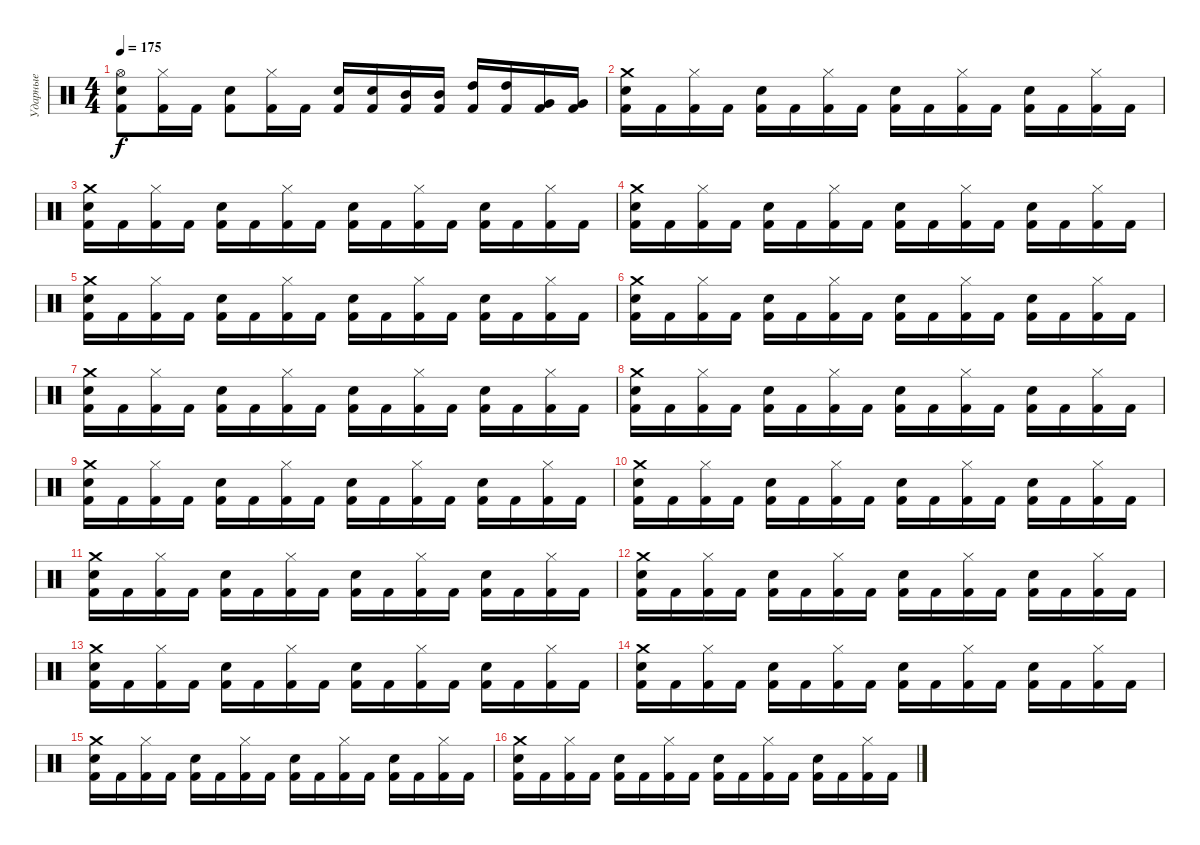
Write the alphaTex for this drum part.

\track ("Ударные" "Ударные") {instrument percussion}
\staff {score}
\articulation defaults
\ts (4 4)
\tempo 175
\clef neutral
\ks c
("Kick (hit) 2" "Snare (hit) 2" "Hi-Hat (open)").8{dy f} ("Kick (hit) 2" "Hi-Hat (closed)").16 "Kick (hit) 2".16 ("Kick (hit) 2" "Snare (hit) 2").8 ("Kick (hit) 2" "Hi-Hat (closed)").16 "Kick (hit) 2".16 ("Electric Snare (hit)" "Kick (hit) 2").16 ("Electric Snare (hit)" "Kick (hit) 2").16 ("Mid Tom (hit)" "Kick (hit) 2").16 ("Mid Tom (hit)" "Kick (hit) 2").16 ("High Tom (hit)" "Kick (hit) 2").16 ("High Tom (hit)" "Kick (hit) 2").16 ("Very Low Tom (hit)" "Kick (hit) 2").16 ("Very Low Tom (hit)" "Kick (hit) 2").16 |
("Kick (hit) 2" "Snare (hit) 2" "Crash medium (hit)").16 "Kick (hit) 2".16 ("Kick (hit) 2" "Hi-Hat (closed)").16 "Kick (hit) 2".16 ("Kick (hit) 2" "Snare (hit) 2").16 "Kick (hit) 2".16 ("Kick (hit) 2" "Hi-Hat (closed)").16 "Kick (hit) 2".16 ("Kick (hit) 2" "Snare (hit) 2").16 "Kick (hit) 2".16 ("Kick (hit) 2" "Hi-Hat (closed)").16 "Kick (hit) 2".16 ("Kick (hit) 2" "Snare (hit) 2").16 "Kick (hit) 2".16 ("Kick (hit) 2" "Hi-Hat (closed)").16 "Kick (hit) 2".16 |
("Kick (hit) 2" "Snare (hit) 2" "Crash medium (hit)").16 "Kick (hit) 2".16 ("Kick (hit) 2" "Hi-Hat (closed)").16 "Kick (hit) 2".16 ("Kick (hit) 2" "Snare (hit) 2").16 "Kick (hit) 2".16 ("Kick (hit) 2" "Hi-Hat (closed)").16 "Kick (hit) 2".16 ("Kick (hit) 2" "Snare (hit) 2").16 "Kick (hit) 2".16 ("Kick (hit) 2" "Hi-Hat (closed)").16 "Kick (hit) 2".16 ("Kick (hit) 2" "Snare (hit) 2").16 "Kick (hit) 2".16 ("Kick (hit) 2" "Hi-Hat (closed)").16 "Kick (hit) 2".16 |
("Kick (hit) 2" "Snare (hit) 2" "Crash medium (hit)").16 "Kick (hit) 2".16 ("Kick (hit) 2" "Hi-Hat (closed)").16 "Kick (hit) 2".16 ("Kick (hit) 2" "Snare (hit) 2").16 "Kick (hit) 2".16 ("Kick (hit) 2" "Hi-Hat (closed)").16 "Kick (hit) 2".16 ("Kick (hit) 2" "Snare (hit) 2").16 "Kick (hit) 2".16 ("Kick (hit) 2" "Hi-Hat (closed)").16 "Kick (hit) 2".16 ("Kick (hit) 2" "Snare (hit) 2").16 "Kick (hit) 2".16 ("Kick (hit) 2" "Hi-Hat (closed)").16 "Kick (hit) 2".16 |
("Kick (hit) 2" "Snare (hit) 2" "Crash medium (hit)").16 "Kick (hit) 2".16 ("Kick (hit) 2" "Hi-Hat (closed)").16 "Kick (hit) 2".16 ("Kick (hit) 2" "Snare (hit) 2").16 "Kick (hit) 2".16 ("Kick (hit) 2" "Hi-Hat (closed)").16 "Kick (hit) 2".16 ("Kick (hit) 2" "Snare (hit) 2").16 "Kick (hit) 2".16 ("Kick (hit) 2" "Hi-Hat (closed)").16 "Kick (hit) 2".16 ("Kick (hit) 2" "Snare (hit) 2").16 "Kick (hit) 2".16 ("Kick (hit) 2" "Hi-Hat (closed)").16 "Kick (hit) 2".16 |
("Kick (hit) 2" "Snare (hit) 2" "Crash medium (hit)").16 "Kick (hit) 2".16 ("Kick (hit) 2" "Hi-Hat (closed)").16 "Kick (hit) 2".16 ("Kick (hit) 2" "Snare (hit) 2").16 "Kick (hit) 2".16 ("Kick (hit) 2" "Hi-Hat (closed)").16 "Kick (hit) 2".16 ("Kick (hit) 2" "Snare (hit) 2").16 "Kick (hit) 2".16 ("Kick (hit) 2" "Hi-Hat (closed)").16 "Kick (hit) 2".16 ("Kick (hit) 2" "Snare (hit) 2").16 "Kick (hit) 2".16 ("Kick (hit) 2" "Hi-Hat (closed)").16 "Kick (hit) 2".16 |
("Kick (hit) 2" "Snare (hit) 2" "Crash medium (hit)").16 "Kick (hit) 2".16 ("Kick (hit) 2" "Hi-Hat (closed)").16 "Kick (hit) 2".16 ("Kick (hit) 2" "Snare (hit) 2").16 "Kick (hit) 2".16 ("Kick (hit) 2" "Hi-Hat (closed)").16 "Kick (hit) 2".16 ("Kick (hit) 2" "Snare (hit) 2").16 "Kick (hit) 2".16 ("Kick (hit) 2" "Hi-Hat (closed)").16 "Kick (hit) 2".16 ("Kick (hit) 2" "Snare (hit) 2").16 "Kick (hit) 2".16 ("Kick (hit) 2" "Hi-Hat (closed)").16 "Kick (hit) 2".16 |
("Kick (hit) 2" "Snare (hit) 2" "Crash medium (hit)").16 "Kick (hit) 2".16 ("Kick (hit) 2" "Hi-Hat (closed)").16 "Kick (hit) 2".16 ("Kick (hit) 2" "Snare (hit) 2").16 "Kick (hit) 2".16 ("Kick (hit) 2" "Hi-Hat (closed)").16 "Kick (hit) 2".16 ("Kick (hit) 2" "Snare (hit) 2").16 "Kick (hit) 2".16 ("Kick (hit) 2" "Hi-Hat (closed)").16 "Kick (hit) 2".16 ("Kick (hit) 2" "Snare (hit) 2").16 "Kick (hit) 2".16 ("Kick (hit) 2" "Hi-Hat (closed)").16 "Kick (hit) 2".16 |
("Kick (hit) 2" "Snare (hit) 2" "Crash medium (hit)").16 "Kick (hit) 2".16 ("Kick (hit) 2" "Hi-Hat (closed)").16 "Kick (hit) 2".16 ("Kick (hit) 2" "Snare (hit) 2").16 "Kick (hit) 2".16 ("Kick (hit) 2" "Hi-Hat (closed)").16 "Kick (hit) 2".16 ("Kick (hit) 2" "Snare (hit) 2").16 "Kick (hit) 2".16 ("Kick (hit) 2" "Hi-Hat (closed)").16 "Kick (hit) 2".16 ("Kick (hit) 2" "Snare (hit) 2").16 "Kick (hit) 2".16 ("Kick (hit) 2" "Hi-Hat (closed)").16 "Kick (hit) 2".16 |
("Kick (hit) 2" "Snare (hit) 2" "Crash medium (hit)").16 "Kick (hit) 2".16 ("Kick (hit) 2" "Hi-Hat (closed)").16 "Kick (hit) 2".16 ("Kick (hit) 2" "Snare (hit) 2").16 "Kick (hit) 2".16 ("Kick (hit) 2" "Hi-Hat (closed)").16 "Kick (hit) 2".16 ("Kick (hit) 2" "Snare (hit) 2").16 "Kick (hit) 2".16 ("Kick (hit) 2" "Hi-Hat (closed)").16 "Kick (hit) 2".16 ("Kick (hit) 2" "Snare (hit) 2").16 "Kick (hit) 2".16 ("Kick (hit) 2" "Hi-Hat (closed)").16 "Kick (hit) 2".16 |
("Kick (hit) 2" "Snare (hit) 2" "Crash medium (hit)").16 "Kick (hit) 2".16 ("Kick (hit) 2" "Hi-Hat (closed)").16 "Kick (hit) 2".16 ("Kick (hit) 2" "Snare (hit) 2").16 "Kick (hit) 2".16 ("Kick (hit) 2" "Hi-Hat (closed)").16 "Kick (hit) 2".16 ("Kick (hit) 2" "Snare (hit) 2").16 "Kick (hit) 2".16 ("Kick (hit) 2" "Hi-Hat (closed)").16 "Kick (hit) 2".16 ("Kick (hit) 2" "Snare (hit) 2").16 "Kick (hit) 2".16 ("Kick (hit) 2" "Hi-Hat (closed)").16 "Kick (hit) 2".16 |
("Kick (hit) 2" "Snare (hit) 2" "Crash medium (hit)").16 "Kick (hit) 2".16 ("Kick (hit) 2" "Hi-Hat (closed)").16 "Kick (hit) 2".16 ("Kick (hit) 2" "Snare (hit) 2").16 "Kick (hit) 2".16 ("Kick (hit) 2" "Hi-Hat (closed)").16 "Kick (hit) 2".16 ("Kick (hit) 2" "Snare (hit) 2").16 "Kick (hit) 2".16 ("Kick (hit) 2" "Hi-Hat (closed)").16 "Kick (hit) 2".16 ("Kick (hit) 2" "Snare (hit) 2").16 "Kick (hit) 2".16 ("Kick (hit) 2" "Hi-Hat (closed)").16 "Kick (hit) 2".16 |
("Kick (hit) 2" "Snare (hit) 2" "Crash medium (hit)").16 "Kick (hit) 2".16 ("Kick (hit) 2" "Hi-Hat (closed)").16 "Kick (hit) 2".16 ("Kick (hit) 2" "Snare (hit) 2").16 "Kick (hit) 2".16 ("Kick (hit) 2" "Hi-Hat (closed)").16 "Kick (hit) 2".16 ("Kick (hit) 2" "Snare (hit) 2").16 "Kick (hit) 2".16 ("Kick (hit) 2" "Hi-Hat (closed)").16 "Kick (hit) 2".16 ("Kick (hit) 2" "Snare (hit) 2").16 "Kick (hit) 2".16 ("Kick (hit) 2" "Hi-Hat (closed)").16 "Kick (hit) 2".16 |
("Kick (hit) 2" "Snare (hit) 2" "Crash medium (hit)").16 "Kick (hit) 2".16 ("Kick (hit) 2" "Hi-Hat (closed)").16 "Kick (hit) 2".16 ("Kick (hit) 2" "Snare (hit) 2").16 "Kick (hit) 2".16 ("Kick (hit) 2" "Hi-Hat (closed)").16 "Kick (hit) 2".16 ("Kick (hit) 2" "Snare (hit) 2").16 "Kick (hit) 2".16 ("Kick (hit) 2" "Hi-Hat (closed)").16 "Kick (hit) 2".16 ("Kick (hit) 2" "Snare (hit) 2").16 "Kick (hit) 2".16 ("Kick (hit) 2" "Hi-Hat (closed)").16 "Kick (hit) 2".16 |
("Kick (hit) 2" "Snare (hit) 2" "Crash medium (hit)").16 "Kick (hit) 2".16 ("Kick (hit) 2" "Hi-Hat (closed)").16 "Kick (hit) 2".16 ("Kick (hit) 2" "Snare (hit) 2").16 "Kick (hit) 2".16 ("Kick (hit) 2" "Hi-Hat (closed)").16 "Kick (hit) 2".16 ("Kick (hit) 2" "Snare (hit) 2").16 "Kick (hit) 2".16 ("Kick (hit) 2" "Hi-Hat (closed)").16 "Kick (hit) 2".16 ("Kick (hit) 2" "Snare (hit) 2").16 "Kick (hit) 2".16 ("Kick (hit) 2" "Hi-Hat (closed)").16 "Kick (hit) 2".16 |
("Kick (hit) 2" "Snare (hit) 2" "Crash medium (hit)").16 "Kick (hit) 2".16 ("Kick (hit) 2" "Hi-Hat (closed)").16 "Kick (hit) 2".16 ("Kick (hit) 2" "Snare (hit) 2").16 "Kick (hit) 2".16 ("Kick (hit) 2" "Hi-Hat (closed)").16 "Kick (hit) 2".16 ("Kick (hit) 2" "Snare (hit) 2").16 "Kick (hit) 2".16 ("Kick (hit) 2" "Hi-Hat (closed)").16 "Kick (hit) 2".16 ("Kick (hit) 2" "Snare (hit) 2").16 "Kick (hit) 2".16 ("Kick (hit) 2" "Hi-Hat (closed)").16 "Kick (hit) 2".16
